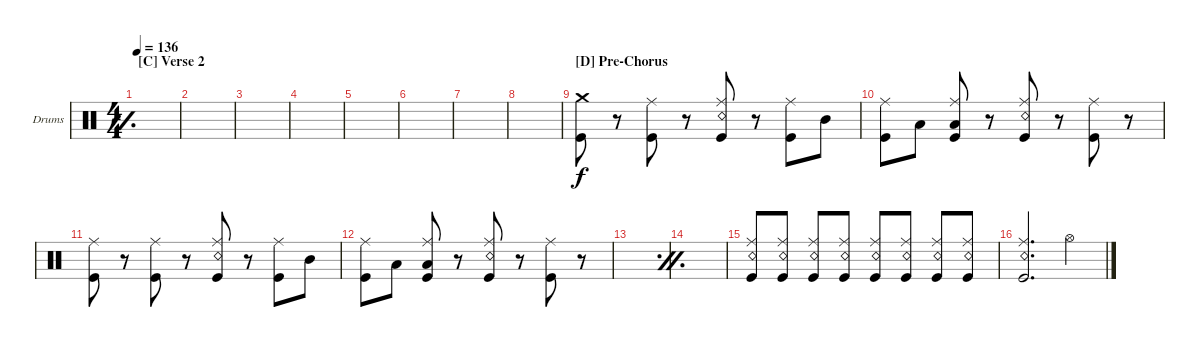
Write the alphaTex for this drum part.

\defaultSystemsLayout 4
\bracketExtendMode groupsimilarinstruments
\firstSystemTrackNameOrientation horizontal
\otherSystemsTrackNameOrientation horizontal
\track ("Drums" "Drums") {instrument percussion}
\staff {score}
\articulation defaults
\ts (4 4)
\section ("C" "Verse 2")
\tempo 136
\clef neutral
\simile simple
\ks c
|
|
|
|
|
|
|
|
\section ("D" "Pre-Chorus")
("Crash medium (hit)" "Kick (hit)").8{dy f} r.8 ("Ride (middle)" "Kick (hit)").8 r.8 ("Snare (rim shot)" "Ride (middle)" "Kick (hit)").8 r.8 ("Ride (middle)" "Kick (hit)").8 "Mid Tom (hit)".8 |
("Ride (middle)" "Kick (hit)").8 "Low Tom (hit)".8 ("Ride (middle)" "Low Tom (hit)" "Kick (hit)").8 r.8 ("Snare (rim shot)" "Ride (middle)" "Kick (hit)").8 r.8 ("Ride (middle)" "Kick (hit)").8 r.8 |
("Kick (hit)" "Ride (middle)").8 r.8 ("Ride (middle)" "Kick (hit)").8 r.8 ("Snare (rim shot)" "Ride (middle)" "Kick (hit)").8 r.8 ("Ride (middle)" "Kick (hit)").8 "Mid Tom (hit)".8 |
("Ride (middle)" "Kick (hit)").8 "Low Tom (hit)".8 ("Ride (middle)" "Low Tom (hit)" "Kick (hit)").8 r.8 ("Snare (rim shot)" "Ride (middle)" "Kick (hit)").8 r.8 ("Ride (middle)" "Kick (hit)").8 r.8 |
\simile firstofdouble
|
\simile secondofdouble
|
\simile none
("Ride (middle)" "Kick (hit)" "Snare (rim shot)").8 ("Ride (middle)" "Kick (hit)" "Snare (rim shot)").8 ("Ride (middle)" "Kick (hit)" "Snare (rim shot)").8 ("Ride (middle)" "Kick (hit)" "Snare (rim shot)").8 ("Ride (middle)" "Kick (hit)" "Snare (rim shot)").8 ("Ride (middle)" "Kick (hit)" "Snare (rim shot)").8 ("Ride (middle)" "Kick (hit)" "Snare (rim shot)").8 ("Ride (middle)" "Kick (hit)" "Snare (rim shot)").8 |
("Ride (middle)" "Kick (hit)" "Snare (rim shot)").2{d} "Hi-Hat (open)".4
